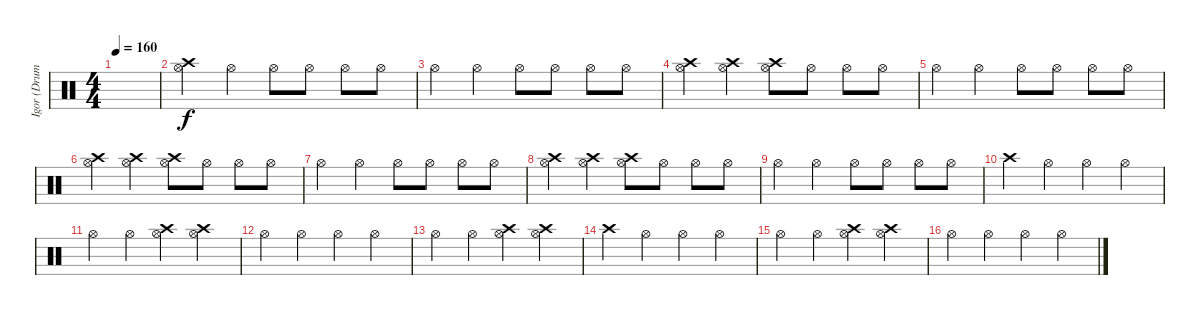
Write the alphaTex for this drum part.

\track ("Igor (Drum - Char & Cymb)" "Igor (Drum") {instrument percussion}
\staff {score}
\articulation defaults
\ts (4 4)
\tempo 160
\clef neutral
\ks c
|
("Crash high (hit)" "Hi-Hat (open)").4 "Hi-Hat (open)".4 "Hi-Hat (open)".8 "Hi-Hat (open)".8 "Hi-Hat (open)".8 "Hi-Hat (open)".8 |
"Hi-Hat (open)".4 "Hi-Hat (open)".4 "Hi-Hat (open)".8 "Hi-Hat (open)".8 "Hi-Hat (open)".8 "Hi-Hat (open)".8 |
("Crash high (hit)" "Hi-Hat (open)").4 ("Crash high (hit)" "Hi-Hat (open)").4 ("Crash high (hit)" "Hi-Hat (open)").8 "Hi-Hat (open)".8 "Hi-Hat (open)".8 "Hi-Hat (open)".8 |
"Hi-Hat (open)".4 "Hi-Hat (open)".4 "Hi-Hat (open)".8 "Hi-Hat (open)".8 "Hi-Hat (open)".8 "Hi-Hat (open)".8 |
("Crash high (hit)" "Hi-Hat (open)").4 ("Crash high (hit)" "Hi-Hat (open)").4 ("Crash high (hit)" "Hi-Hat (open)").8 "Hi-Hat (open)".8 "Hi-Hat (open)".8 "Hi-Hat (open)".8 |
"Hi-Hat (open)".4 "Hi-Hat (open)".4 "Hi-Hat (open)".8 "Hi-Hat (open)".8 "Hi-Hat (open)".8 "Hi-Hat (open)".8 |
("Crash high (hit)" "Hi-Hat (open)").4 ("Crash high (hit)" "Hi-Hat (open)").4 ("Crash high (hit)" "Hi-Hat (open)").8 "Hi-Hat (open)".8 "Hi-Hat (open)".8 "Hi-Hat (open)".8 |
"Hi-Hat (open)".4 "Hi-Hat (open)".4 "Hi-Hat (open)".8 "Hi-Hat (open)".8 "Hi-Hat (open)".8 "Hi-Hat (open)".8 |
"Crash high (hit)".4 "Hi-Hat (open)".4 "Hi-Hat (open)".4 "Hi-Hat (open)".4 |
"Hi-Hat (open)".4 "Hi-Hat (open)".4 ("Crash high (hit)" "Hi-Hat (open)").4 ("Crash high (hit)" "Hi-Hat (open)").4 |
"Hi-Hat (open)".4 "Hi-Hat (open)".4 "Hi-Hat (open)".4 "Hi-Hat (open)".4 |
"Hi-Hat (open)".4 "Hi-Hat (open)".4 ("Crash high (hit)" "Hi-Hat (open)").4 ("Crash high (hit)" "Hi-Hat (open)").4 |
"Crash high (hit)".4 "Hi-Hat (open)".4 "Hi-Hat (open)".4 "Hi-Hat (open)".4 |
"Hi-Hat (open)".4 "Hi-Hat (open)".4 ("Crash high (hit)" "Hi-Hat (open)").4 ("Crash high (hit)" "Hi-Hat (open)").4 |
"Hi-Hat (open)".4 "Hi-Hat (open)".4 "Hi-Hat (open)".4 "Hi-Hat (open)".4
